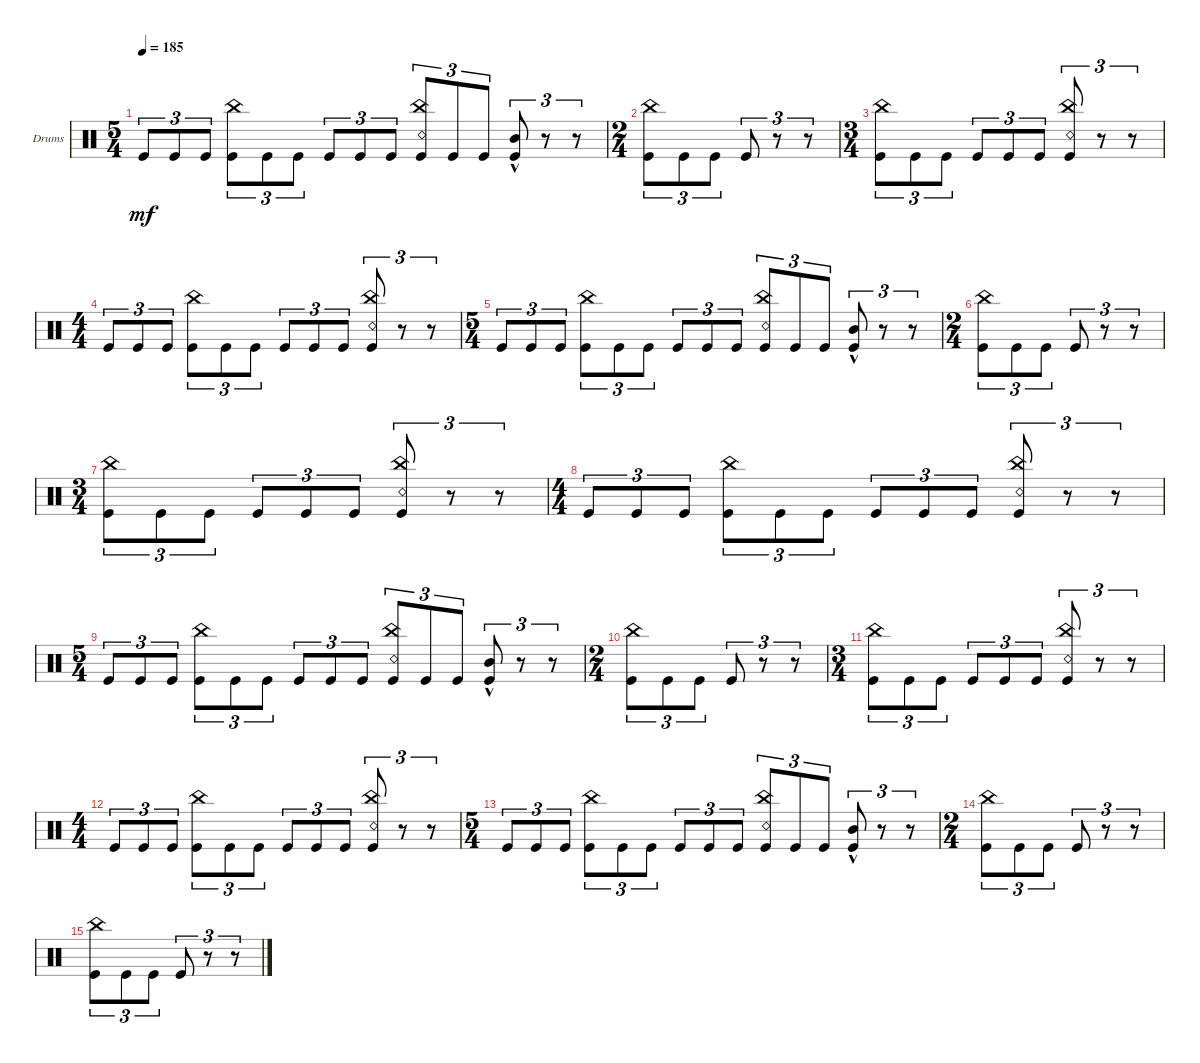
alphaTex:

\defaultSystemsLayout 4
\bracketExtendMode groupsimilarinstruments
\firstSystemTrackNameOrientation horizontal
\otherSystemsTrackNameOrientation horizontal
\track ("Ryan" "Drums") {instrument percussion}
\staff {score}
\articulation defaults
\ts (5 4)
\tempo 185
\clef neutral
\ks c "Kick (hit)".8{tu (3 2) dy mf} "Kick (hit)".8{tu (3 2)} "Kick (hit)".8{tu (3 2)}
("Kick (hit)" "China (hit)").8{tu (3 2)} "Kick (hit)".8{tu (3 2)} "Kick (hit)".8{tu (3 2)} "Kick (hit)".8{tu (3 2)} "Kick (hit)".8{tu (3 2)} "Kick (hit)".8{tu (3 2)} ("Kick (hit)" "Snare (rim shot)" "China (hit)").8{tu (3 2)} "Kick (hit)".8{tu (3 2)} "Kick (hit)".8{tu (3 2)} ("Kick (hit)" "Mid Tom (hit)"{hac}).8{tu (3 2)} r.8{tu (3 2)} r.8{tu (3 2)} |
\ts (2 4)
("Kick (hit)" "China (hit)").8{tu (3 2)} "Kick (hit)".8{tu (3 2)} "Kick (hit)".8{tu (3 2)} "Kick (hit)".8{tu (3 2)} r.8{tu (3 2)} r.8{tu (3 2)} |
\ts (3 4)
("Kick (hit)" "China (hit)").8{tu (3 2)} "Kick (hit)".8{tu (3 2)} "Kick (hit)".8{tu (3 2)} "Kick (hit)".8{tu (3 2)} "Kick (hit)".8{tu (3 2)} "Kick (hit)".8{tu (3 2)} ("Kick (hit)" "China (hit)" "Snare (rim shot)").8{tu (3 2)} r.8{tu (3 2)} r.8{tu (3 2)} |
\ts (4 4)
"Kick (hit)".8{tu (3 2)} "Kick (hit)".8{tu (3 2)} "Kick (hit)".8{tu (3 2)} ("Kick (hit)" "China (hit)").8{tu (3 2)} "Kick (hit)".8{tu (3 2)} "Kick (hit)".8{tu (3 2)} "Kick (hit)".8{tu (3 2)} "Kick (hit)".8{tu (3 2)} "Kick (hit)".8{tu (3 2)} ("Kick (hit)" "Snare (rim shot)" "China (hit)").8{tu (3 2)} r.8{tu (3 2)} r.8{tu (3 2)} |
\ts (5 4)
"Kick (hit)".8{tu (3 2)} "Kick (hit)".8{tu (3 2)} "Kick (hit)".8{tu (3 2)} ("Kick (hit)" "China (hit)").8{tu (3 2)} "Kick (hit)".8{tu (3 2)} "Kick (hit)".8{tu (3 2)} "Kick (hit)".8{tu (3 2)} "Kick (hit)".8{tu (3 2)} "Kick (hit)".8{tu (3 2)} ("Kick (hit)" "Snare (rim shot)" "China (hit)").8{tu (3 2)} "Kick (hit)".8{tu (3 2)} "Kick (hit)".8{tu (3 2)} ("Kick (hit)" "Mid Tom (hit)"{hac}).8{tu (3 2)} r.8{tu (3 2)} r.8{tu (3 2)} |
\ts (2 4)
("Kick (hit)" "China (hit)").8{tu (3 2)} "Kick (hit)".8{tu (3 2)} "Kick (hit)".8{tu (3 2)} "Kick (hit)".8{tu (3 2)} r.8{tu (3 2)} r.8{tu (3 2)} |
\ts (3 4)
("Kick (hit)" "China (hit)").8{tu (3 2)} "Kick (hit)".8{tu (3 2)} "Kick (hit)".8{tu (3 2)} "Kick (hit)".8{tu (3 2)} "Kick (hit)".8{tu (3 2)} "Kick (hit)".8{tu (3 2)} ("Kick (hit)" "China (hit)" "Snare (rim shot)").8{tu (3 2)} r.8{tu (3 2)} r.8{tu (3 2)} |
\ts (4 4)
"Kick (hit)".8{tu (3 2)} "Kick (hit)".8{tu (3 2)} "Kick (hit)".8{tu (3 2)} ("Kick (hit)" "China (hit)").8{tu (3 2)} "Kick (hit)".8{tu (3 2)} "Kick (hit)".8{tu (3 2)} "Kick (hit)".8{tu (3 2)} "Kick (hit)".8{tu (3 2)} "Kick (hit)".8{tu (3 2)} ("Kick (hit)" "Snare (rim shot)" "China (hit)").8{tu (3 2)} r.8{tu (3 2)} r.8{tu (3 2)} |
\ts (5 4)
"Kick (hit)".8{tu (3 2)} "Kick (hit)".8{tu (3 2)} "Kick (hit)".8{tu (3 2)} ("Kick (hit)" "China (hit)").8{tu (3 2)} "Kick (hit)".8{tu (3 2)} "Kick (hit)".8{tu (3 2)} "Kick (hit)".8{tu (3 2)} "Kick (hit)".8{tu (3 2)} "Kick (hit)".8{tu (3 2)} ("Kick (hit)" "Snare (rim shot)" "China (hit)").8{tu (3 2)} "Kick (hit)".8{tu (3 2)} "Kick (hit)".8{tu (3 2)} ("Kick (hit)" "Mid Tom (hit)"{hac}).8{tu (3 2)} r.8{tu (3 2)} r.8{tu (3 2)} |
\ts (2 4)
("Kick (hit)" "China (hit)").8{tu (3 2)} "Kick (hit)".8{tu (3 2)} "Kick (hit)".8{tu (3 2)} "Kick (hit)".8{tu (3 2)} r.8{tu (3 2)} r.8{tu (3 2)} |
\ts (3 4)
("Kick (hit)" "China (hit)").8{tu (3 2)} "Kick (hit)".8{tu (3 2)} "Kick (hit)".8{tu (3 2)} "Kick (hit)".8{tu (3 2)} "Kick (hit)".8{tu (3 2)} "Kick (hit)".8{tu (3 2)} ("Kick (hit)" "China (hit)" "Snare (rim shot)").8{tu (3 2)} r.8{tu (3 2)} r.8{tu (3 2)} |
\ts (4 4)
"Kick (hit)".8{tu (3 2)} "Kick (hit)".8{tu (3 2)} "Kick (hit)".8{tu (3 2)} ("Kick (hit)" "China (hit)").8{tu (3 2)} "Kick (hit)".8{tu (3 2)} "Kick (hit)".8{tu (3 2)} "Kick (hit)".8{tu (3 2)} "Kick (hit)".8{tu (3 2)} "Kick (hit)".8{tu (3 2)} ("Kick (hit)" "Snare (rim shot)" "China (hit)").8{tu (3 2)} r.8{tu (3 2)} r.8{tu (3 2)} |
\ts (5 4)
"Kick (hit)".8{tu (3 2)} "Kick (hit)".8{tu (3 2)} "Kick (hit)".8{tu (3 2)} ("Kick (hit)" "China (hit)").8{tu (3 2)} "Kick (hit)".8{tu (3 2)} "Kick (hit)".8{tu (3 2)} "Kick (hit)".8{tu (3 2)} "Kick (hit)".8{tu (3 2)} "Kick (hit)".8{tu (3 2)} ("Kick (hit)" "Snare (rim shot)" "China (hit)").8{tu (3 2)} "Kick (hit)".8{tu (3 2)} "Kick (hit)".8{tu (3 2)} ("Kick (hit)" "Mid Tom (hit)"{hac}).8{tu (3 2)} r.8{tu (3 2)} r.8{tu (3 2)} |
\ts (2 4)
("Kick (hit)" "China (hit)").8{tu (3 2)} "Kick (hit)".8{tu (3 2)} "Kick (hit)".8{tu (3 2)} "Kick (hit)".8{tu (3 2)} r.8{tu (3 2)} r.8{tu (3 2)} |
("Kick (hit)" "China (hit)").8{tu (3 2)} "Kick (hit)".8{tu (3 2)} "Kick (hit)".8{tu (3 2)} "Kick (hit)".8{tu (3 2)} r.8{tu (3 2)} r.8{tu (3 2)}
